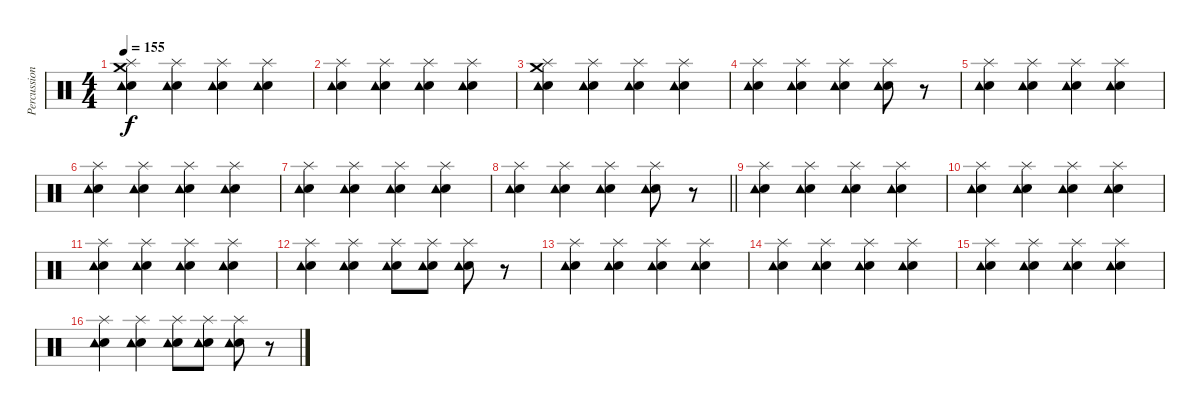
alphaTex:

\track ("Percussions" "Percussion") {instrument percussion}
\staff {score}
\articulation defaults
\ts (4 4)
\tempo 155
\clef neutral
\ks c
("Crash medium (hit)" "Hand Clap (hit)" "Splash (hit)" "Tambourine (hit)").4{dy f} ("Hand Clap (hit)" "Splash (hit)" "Tambourine (hit)").4 ("Hand Clap (hit)" "Splash (hit)" "Tambourine (hit)").4 ("Hand Clap (hit)" "Splash (hit)" "Tambourine (hit)").4 |
("Hand Clap (hit)" "Splash (hit)" "Tambourine (hit)").4 ("Hand Clap (hit)" "Splash (hit)" "Tambourine (hit)").4 ("Hand Clap (hit)" "Splash (hit)" "Tambourine (hit)").4 ("Hand Clap (hit)" "Splash (hit)" "Tambourine (hit)").4 |
("Crash medium (hit)" "Hand Clap (hit)" "Splash (hit)" "Tambourine (hit)").4 ("Hand Clap (hit)" "Splash (hit)" "Tambourine (hit)").4 ("Hand Clap (hit)" "Splash (hit)" "Tambourine (hit)").4 ("Hand Clap (hit)" "Splash (hit)" "Tambourine (hit)").4 |
("Hand Clap (hit)" "Splash (hit)" "Tambourine (hit)").4 ("Hand Clap (hit)" "Splash (hit)" "Tambourine (hit)").4 ("Hand Clap (hit)" "Splash (hit)" "Tambourine (hit)").4 ("Hand Clap (hit)" "Splash (hit)" "Tambourine (hit)").8 r.8 |
("Hand Clap (hit)" "Splash (hit)" "Tambourine (hit)").4 ("Hand Clap (hit)" "Splash (hit)" "Tambourine (hit)").4 ("Hand Clap (hit)" "Splash (hit)" "Tambourine (hit)").4 ("Hand Clap (hit)" "Splash (hit)" "Tambourine (hit)").4 |
("Hand Clap (hit)" "Splash (hit)" "Tambourine (hit)").4 ("Hand Clap (hit)" "Splash (hit)" "Tambourine (hit)").4 ("Hand Clap (hit)" "Splash (hit)" "Tambourine (hit)").4 ("Hand Clap (hit)" "Splash (hit)" "Tambourine (hit)").4 |
("Hand Clap (hit)" "Splash (hit)" "Tambourine (hit)").4 ("Hand Clap (hit)" "Splash (hit)" "Tambourine (hit)").4 ("Hand Clap (hit)" "Splash (hit)" "Tambourine (hit)").4 ("Hand Clap (hit)" "Splash (hit)" "Tambourine (hit)").4 |
\barLineRight lightlight
("Hand Clap (hit)" "Splash (hit)" "Tambourine (hit)").4 ("Hand Clap (hit)" "Splash (hit)" "Tambourine (hit)").4 ("Hand Clap (hit)" "Splash (hit)" "Tambourine (hit)").4 ("Hand Clap (hit)" "Splash (hit)" "Tambourine (hit)").8 r.8 |
\section ("" "")
("Hand Clap (hit)" "Splash (hit)" "Tambourine (hit)").4 ("Hand Clap (hit)" "Splash (hit)" "Tambourine (hit)").4 ("Hand Clap (hit)" "Splash (hit)" "Tambourine (hit)").4 ("Hand Clap (hit)" "Splash (hit)" "Tambourine (hit)").4 |
("Hand Clap (hit)" "Splash (hit)" "Tambourine (hit)").4 ("Hand Clap (hit)" "Splash (hit)" "Tambourine (hit)").4 ("Hand Clap (hit)" "Splash (hit)" "Tambourine (hit)").4 ("Hand Clap (hit)" "Splash (hit)" "Tambourine (hit)").4 |
("Hand Clap (hit)" "Splash (hit)" "Tambourine (hit)").4 ("Hand Clap (hit)" "Splash (hit)" "Tambourine (hit)").4 ("Hand Clap (hit)" "Splash (hit)" "Tambourine (hit)").4 ("Hand Clap (hit)" "Splash (hit)" "Tambourine (hit)").4 |
("Hand Clap (hit)" "Splash (hit)" "Tambourine (hit)").4 ("Hand Clap (hit)" "Splash (hit)" "Tambourine (hit)").4 ("Hand Clap (hit)" "Splash (hit)" "Tambourine (hit)").8 ("Hand Clap (hit)" "Splash (hit)" "Tambourine (hit)").8 ("Hand Clap (hit)" "Splash (hit)" "Tambourine (hit)").8 r.8 |
("Hand Clap (hit)" "Splash (hit)" "Tambourine (hit)").4 ("Hand Clap (hit)" "Splash (hit)" "Tambourine (hit)").4 ("Hand Clap (hit)" "Splash (hit)" "Tambourine (hit)").4 ("Hand Clap (hit)" "Splash (hit)" "Tambourine (hit)").4 |
("Hand Clap (hit)" "Splash (hit)" "Tambourine (hit)").4 ("Hand Clap (hit)" "Splash (hit)" "Tambourine (hit)").4 ("Hand Clap (hit)" "Splash (hit)" "Tambourine (hit)").4 ("Hand Clap (hit)" "Splash (hit)" "Tambourine (hit)").4 |
("Hand Clap (hit)" "Splash (hit)" "Tambourine (hit)").4 ("Hand Clap (hit)" "Splash (hit)" "Tambourine (hit)").4 ("Hand Clap (hit)" "Splash (hit)" "Tambourine (hit)").4 ("Hand Clap (hit)" "Splash (hit)" "Tambourine (hit)").4 |
("Hand Clap (hit)" "Splash (hit)" "Tambourine (hit)").4 ("Hand Clap (hit)" "Splash (hit)" "Tambourine (hit)").4 ("Hand Clap (hit)" "Splash (hit)" "Tambourine (hit)").8 ("Hand Clap (hit)" "Splash (hit)" "Tambourine (hit)").8 ("Hand Clap (hit)" "Splash (hit)" "Tambourine (hit)").8 r.8
